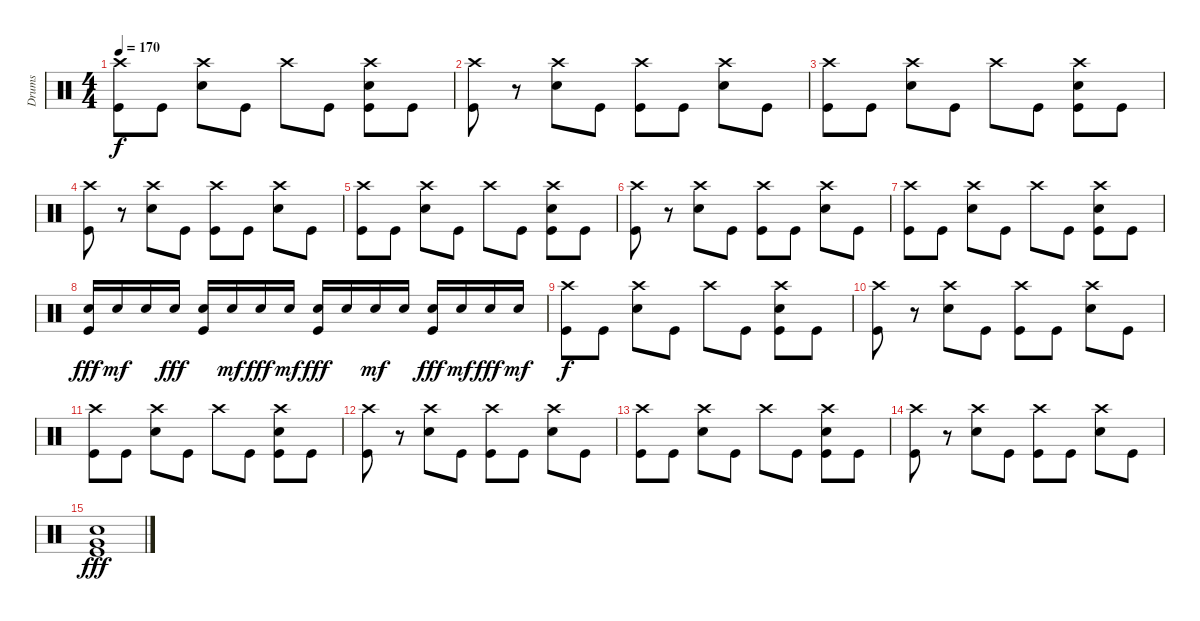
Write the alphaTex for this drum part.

\track ("Drums" "Drums") {instrument percussion}
\staff {score}
\articulation defaults
\ts (4 4)
\tempo 170
\clef neutral
\ks c
("Crash high (hit)" "Kick (hit)").8{dy f} "Kick (hit)".8 ("Crash high (hit)" "Electric Snare (hit)").8 "Kick (hit)".8 "Crash high (hit)".8 "Kick (hit)".8 ("Crash high (hit)" "Electric Snare (hit)" "Kick (hit)").8 "Kick (hit)".8 |
("Crash high (hit)" "Kick (hit)").8 r.8 ("Crash high (hit)" "Electric Snare (hit)").8 "Kick (hit)".8 ("Crash high (hit)" "Kick (hit)").8 "Kick (hit)".8 ("Crash high (hit)" "Electric Snare (hit)").8 "Kick (hit)".8 |
("Crash high (hit)" "Kick (hit)").8 "Kick (hit)".8 ("Crash high (hit)" "Electric Snare (hit)").8 "Kick (hit)".8 "Crash high (hit)".8 "Kick (hit)".8 ("Crash high (hit)" "Electric Snare (hit)" "Kick (hit)").8 "Kick (hit)".8 |
("Crash high (hit)" "Kick (hit)").8 r.8 ("Crash high (hit)" "Electric Snare (hit)").8 "Kick (hit)".8 ("Crash high (hit)" "Kick (hit)").8 "Kick (hit)".8 ("Crash high (hit)" "Electric Snare (hit)").8 "Kick (hit)".8 |
("Crash high (hit)" "Kick (hit)").8 "Kick (hit)".8 ("Crash high (hit)" "Electric Snare (hit)").8 "Kick (hit)".8 "Crash high (hit)".8 "Kick (hit)".8 ("Crash high (hit)" "Electric Snare (hit)" "Kick (hit)").8 "Kick (hit)".8 |
("Crash high (hit)" "Kick (hit)").8 r.8 ("Crash high (hit)" "Electric Snare (hit)").8 "Kick (hit)".8 ("Crash high (hit)" "Kick (hit)").8 "Kick (hit)".8 ("Crash high (hit)" "Electric Snare (hit)").8 "Kick (hit)".8 |
("Crash high (hit)" "Kick (hit)").8 "Kick (hit)".8 ("Crash high (hit)" "Electric Snare (hit)").8 "Kick (hit)".8 "Crash high (hit)".8 "Kick (hit)".8 ("Crash high (hit)" "Electric Snare (hit)" "Kick (hit)").8 "Kick (hit)".8 |
("Electric Snare (hit)" "Kick (hit)").16{dy fff} "Electric Snare (hit)".16{dy mf} "Electric Snare (hit)".16 "Electric Snare (hit)".16{dy fff} ("Electric Snare (hit)" "Kick (hit)").16 "Electric Snare (hit)".16{dy mf} "Electric Snare (hit)".16{dy fff} "Electric Snare (hit)".16{dy mf} ("Electric Snare (hit)" "Kick (hit)").16{dy fff} "Electric Snare (hit)".16 "Electric Snare (hit)".16{dy mf} "Electric Snare (hit)".16 ("Electric Snare (hit)" "Kick (hit)").16{dy fff} "Electric Snare (hit)".16{dy mf} "Electric Snare (hit)".16{dy fff} "Electric Snare (hit)".16{dy mf} |
("Crash high (hit)" "Kick (hit)").8{dy f} "Kick (hit)".8 ("Crash high (hit)" "Electric Snare (hit)").8 "Kick (hit)".8 "Crash high (hit)".8 "Kick (hit)".8 ("Crash high (hit)" "Electric Snare (hit)" "Kick (hit)").8 "Kick (hit)".8 |
("Crash high (hit)" "Kick (hit)").8 r.8 ("Crash high (hit)" "Electric Snare (hit)").8 "Kick (hit)".8 ("Crash high (hit)" "Kick (hit)").8 "Kick (hit)".8 ("Crash high (hit)" "Electric Snare (hit)").8 "Kick (hit)".8 |
("Crash high (hit)" "Kick (hit)").8 "Kick (hit)".8 ("Crash high (hit)" "Electric Snare (hit)").8 "Kick (hit)".8 "Crash high (hit)".8 "Kick (hit)".8 ("Crash high (hit)" "Electric Snare (hit)" "Kick (hit)").8 "Kick (hit)".8 |
("Crash high (hit)" "Kick (hit)").8 r.8 ("Crash high (hit)" "Electric Snare (hit)").8 "Kick (hit)".8 ("Crash high (hit)" "Kick (hit)").8 "Kick (hit)".8 ("Crash high (hit)" "Electric Snare (hit)").8 "Kick (hit)".8 |
("Crash high (hit)" "Kick (hit)").8 "Kick (hit)".8 ("Crash high (hit)" "Electric Snare (hit)").8 "Kick (hit)".8 "Crash high (hit)".8 "Kick (hit)".8 ("Crash high (hit)" "Electric Snare (hit)" "Kick (hit)").8 "Kick (hit)".8 |
("Crash high (hit)" "Kick (hit)").8 r.8 ("Crash high (hit)" "Electric Snare (hit)").8 "Kick (hit)".8 ("Crash high (hit)" "Kick (hit)").8 "Kick (hit)".8 ("Crash high (hit)" "Electric Snare (hit)").8 "Kick (hit)".8 |
("Electric Snare (hit)" "Very Low Tom (hit)" "Kick (hit)").1{dy fff}
